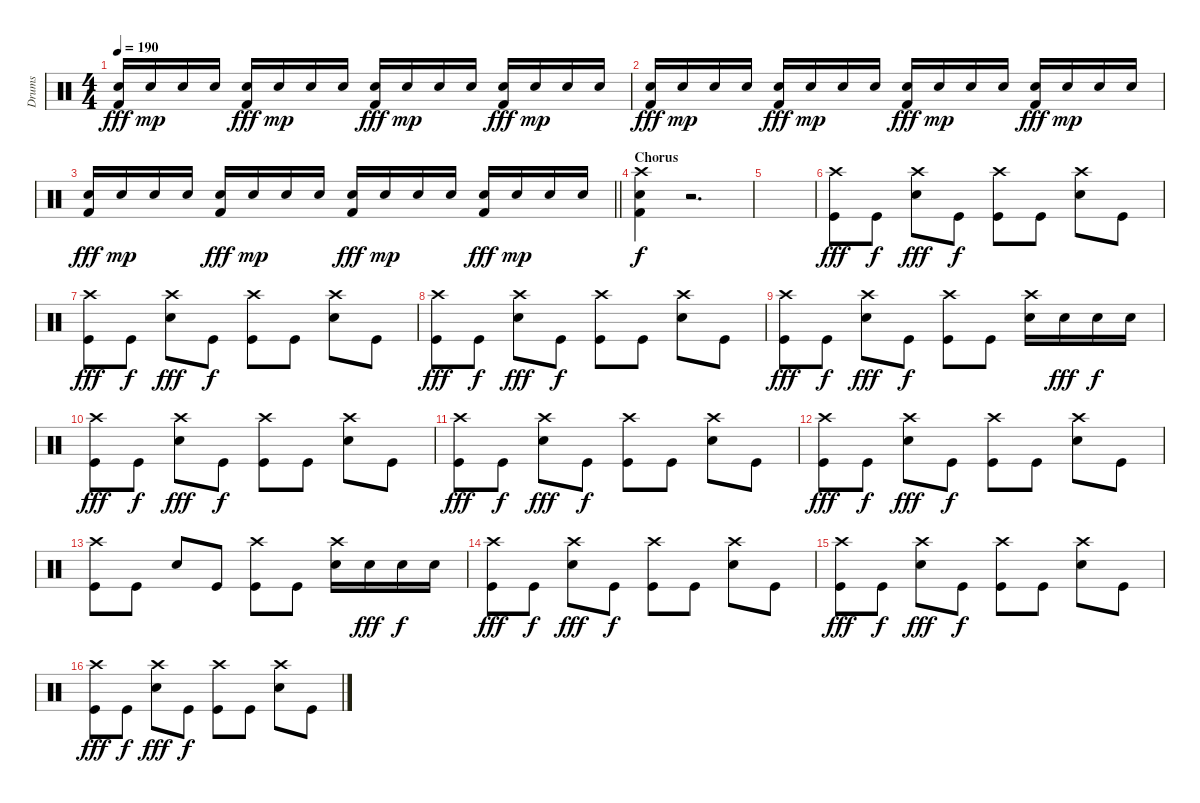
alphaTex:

\track ("Drums" "Drums") {instrument percussion}
\staff {score}
\articulation defaults
\ts (4 4)
\tempo 190
\clef neutral
\ks c
("Snare (hit) 2" "Kick (hit) 2").16{dy fff} "Snare (hit) 2".16{dy mp} "Snare (hit) 2".16 "Snare (hit) 2".16 ("Snare (hit) 2" "Kick (hit) 2").16{dy fff} "Snare (hit) 2".16{dy mp} "Snare (hit) 2".16 "Snare (hit) 2".16 ("Snare (hit) 2" "Kick (hit) 2").16{dy fff} "Snare (hit) 2".16{dy mp} "Snare (hit) 2".16 "Snare (hit) 2".16 ("Snare (hit) 2" "Kick (hit) 2").16{dy fff} "Snare (hit) 2".16{dy mp} "Snare (hit) 2".16 "Snare (hit) 2".16 |
("Snare (hit) 2" "Kick (hit) 2").16{dy fff} "Snare (hit) 2".16{dy mp} "Snare (hit) 2".16 "Snare (hit) 2".16 ("Snare (hit) 2" "Kick (hit) 2").16{dy fff} "Snare (hit) 2".16{dy mp} "Snare (hit) 2".16 "Snare (hit) 2".16 ("Snare (hit) 2" "Kick (hit) 2").16{dy fff} "Snare (hit) 2".16{dy mp} "Snare (hit) 2".16 "Snare (hit) 2".16 ("Snare (hit) 2" "Kick (hit) 2").16{dy fff} "Snare (hit) 2".16{dy mp} "Snare (hit) 2".16 "Snare (hit) 2".16 |
\barLineRight lightlight
("Snare (hit) 2" "Kick (hit) 2").16{dy fff} "Snare (hit) 2".16{dy mp} "Snare (hit) 2".16 "Snare (hit) 2".16 ("Snare (hit) 2" "Kick (hit) 2").16{dy fff} "Snare (hit) 2".16{dy mp} "Snare (hit) 2".16 "Snare (hit) 2".16 ("Snare (hit) 2" "Kick (hit) 2").16{dy fff} "Snare (hit) 2".16{dy mp} "Snare (hit) 2".16 "Snare (hit) 2".16 ("Snare (hit) 2" "Kick (hit) 2").16{dy fff} "Snare (hit) 2".16{dy mp} "Snare (hit) 2".16 "Snare (hit) 2".16 |
\section ("" "Chorus")
("Crash high (hit)" "Snare (hit) 2" "Kick (hit) 2").4{dy f} r.2{d} |
|
("Crash high (hit)" "Kick (hit)").8{dy fff} "Kick (hit)".8{dy f} ("Crash high (hit)" "Snare (hit) 2").8{dy fff} "Kick (hit)".8{dy f} ("Crash high (hit)" "Kick (hit)").8 "Kick (hit)".8 ("Crash high (hit)" "Snare (hit) 2").8 "Kick (hit)".8 |
("Crash high (hit)" "Kick (hit)").8{dy fff} "Kick (hit)".8{dy f} ("Crash high (hit)" "Snare (hit) 2").8{dy fff} "Kick (hit)".8{dy f} ("Crash high (hit)" "Kick (hit)").8 "Kick (hit)".8 ("Crash high (hit)" "Snare (hit) 2").8 "Kick (hit)".8 |
("Crash high (hit)" "Kick (hit)").8{dy fff} "Kick (hit)".8{dy f} ("Crash high (hit)" "Snare (hit) 2").8{dy fff} "Kick (hit)".8{dy f} ("Crash high (hit)" "Kick (hit)").8 "Kick (hit)".8 ("Crash high (hit)" "Snare (hit) 2").8 "Kick (hit)".8 |
("Crash high (hit)" "Kick (hit)").8{dy fff} "Kick (hit)".8{dy f} ("Crash high (hit)" "Snare (hit) 2").8{dy fff} "Kick (hit)".8{dy f} ("Crash high (hit)" "Kick (hit)").8 "Kick (hit)".8 ("Crash high (hit)" "Snare (hit) 2").16 "Snare (hit) 2".16{dy fff} "Snare (hit) 2".16{dy f} "Snare (hit) 2".16 |
("Crash high (hit)" "Kick (hit)").8{dy fff} "Kick (hit)".8{dy f} ("Crash high (hit)" "Snare (hit) 2").8{dy fff} "Kick (hit)".8{dy f} ("Crash high (hit)" "Kick (hit)").8 "Kick (hit)".8 ("Crash high (hit)" "Snare (hit) 2").8 "Kick (hit)".8 |
("Crash high (hit)" "Kick (hit)").8{dy fff} "Kick (hit)".8{dy f} ("Crash high (hit)" "Snare (hit) 2").8{dy fff} "Kick (hit)".8{dy f} ("Crash high (hit)" "Kick (hit)").8 "Kick (hit)".8 ("Crash high (hit)" "Snare (hit) 2").8 "Kick (hit)".8 |
("Crash high (hit)" "Kick (hit)").8{dy fff} "Kick (hit)".8{dy f} ("Crash high (hit)" "Snare (hit) 2").8{dy fff} "Kick (hit)".8{dy f} ("Crash high (hit)" "Kick (hit)").8 "Kick (hit)".8 ("Crash high (hit)" "Snare (hit) 2").8 "Kick (hit)".8 |
("Crash high (hit)" "Kick (hit)").8 "Kick (hit)".8 "Snare (hit) 2".8 "Kick (hit)".8 ("Crash high (hit)" "Kick (hit)").8 "Kick (hit)".8 ("Crash high (hit)" "Snare (hit) 2").16 "Snare (hit) 2".16{dy fff} "Snare (hit) 2".16{dy f} "Snare (hit) 2".16 |
("Crash high (hit)" "Kick (hit)").8{dy fff} "Kick (hit)".8{dy f} ("Crash high (hit)" "Snare (hit) 2").8{dy fff} "Kick (hit)".8{dy f} ("Crash high (hit)" "Kick (hit)").8 "Kick (hit)".8 ("Crash high (hit)" "Snare (hit) 2").8 "Kick (hit)".8 |
("Crash high (hit)" "Kick (hit)").8{dy fff} "Kick (hit)".8{dy f} ("Crash high (hit)" "Snare (hit) 2").8{dy fff} "Kick (hit)".8{dy f} ("Crash high (hit)" "Kick (hit)").8 "Kick (hit)".8 ("Crash high (hit)" "Snare (hit) 2").8 "Kick (hit)".8 |
("Crash high (hit)" "Kick (hit)").8{dy fff} "Kick (hit)".8{dy f} ("Crash high (hit)" "Snare (hit) 2").8{dy fff} "Kick (hit)".8{dy f} ("Crash high (hit)" "Kick (hit)").8 "Kick (hit)".8 ("Crash high (hit)" "Snare (hit) 2").8 "Kick (hit)".8
